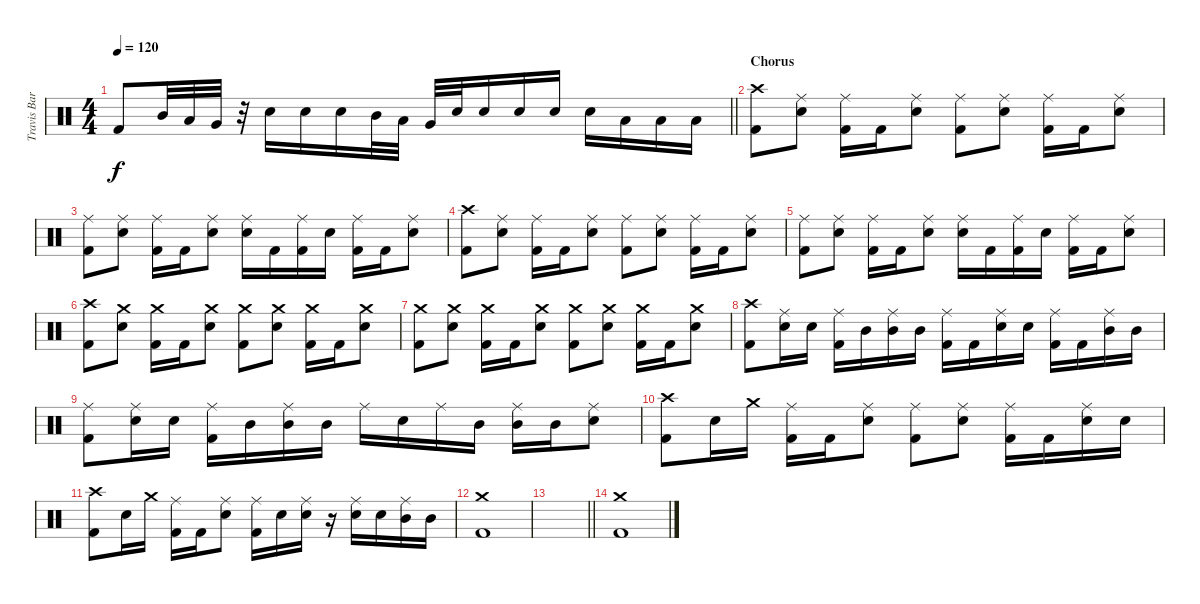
\track ("Travis Barker - Drums" "Travis Bar") {instrument percussion}
\staff {score}
\articulation defaults
\ts (4 4)
\tempo 120
\clef neutral
\barLineRight lightlight
\ks c "Kick (hit) 2".8{dy f} "Mid Tom (hit)".32 "Low Tom (hit)".32 "Very Low Tom (hit)".32
r.32 "Electric Snare (hit)".16 "Electric Snare (hit)".16 "Electric Snare (hit)".16 "Mid Tom (hit)".32 "Low Tom (hit)".32 "Very Low Tom (hit)".32 "Electric Snare (hit)".32 "Electric Snare (hit)".16 "Electric Snare (hit)".16 "Electric Snare (hit)".16 "Electric Snare (hit)".16 "Low Tom (hit)".16 "Low Tom (hit)".16 "Low Tom (hit)".16 |
\section ("" "Chorus")
("Crash high (hit)" "Kick (hit) 2").8 ("Ride (middle)" "Electric Snare (hit)").8 ("Ride (middle)" "Kick (hit) 2").16 "Kick (hit) 2".16 ("Ride (middle)" "Electric Snare (hit)").8 ("Ride (middle)" "Kick (hit) 2").8 ("Ride (middle)" "Electric Snare (hit)").8 ("Ride (middle)" "Kick (hit) 2").16 "Kick (hit) 2".16 ("Ride (middle)" "Electric Snare (hit)").8 |
("Ride (middle)" "Kick (hit) 2").8 ("Ride (middle)" "Electric Snare (hit)").8 ("Ride (middle)" "Kick (hit) 2").16 "Kick (hit) 2".16 ("Ride (middle)" "Electric Snare (hit)").8 ("Ride (middle)" "Electric Snare (hit)").16 "Kick (hit) 2".16 ("Ride (middle)" "Kick (hit) 2").16 "Electric Snare (hit)".16 ("Ride (middle)" "Kick (hit) 2").16 "Kick (hit) 2".16 ("Ride (middle)" "Electric Snare (hit)").8 |
("Crash high (hit)" "Kick (hit) 2").8 ("Ride (middle)" "Electric Snare (hit)").8 ("Ride (middle)" "Kick (hit) 2").16 "Kick (hit) 2".16 ("Ride (middle)" "Electric Snare (hit)").8 ("Ride (middle)" "Kick (hit) 2").8 ("Ride (middle)" "Electric Snare (hit)").8 ("Ride (middle)" "Kick (hit) 2").16 "Kick (hit) 2".16 ("Ride (middle)" "Electric Snare (hit)").8 |
("Ride (middle)" "Kick (hit) 2").8 ("Ride (middle)" "Electric Snare (hit)").8 ("Ride (middle)" "Kick (hit) 2").16 "Kick (hit) 2".16 ("Ride (middle)" "Electric Snare (hit)").8 ("Ride (middle)" "Electric Snare (hit)").16 "Kick (hit) 2".16 ("Ride (middle)" "Kick (hit) 2").16 "Electric Snare (hit)".16 ("Ride (middle)" "Kick (hit) 2").16 "Kick (hit) 2".16 ("Ride (middle)" "Electric Snare (hit)").8 |
("Crash high (hit)" "Kick (hit) 2").8 ("Crash medium (hit)" "Electric Snare (hit)").8 ("Crash medium (hit)" "Kick (hit) 2").16 "Kick (hit) 2".16 ("Crash medium (hit)" "Electric Snare (hit)").8 ("Crash medium (hit)" "Kick (hit) 2").8 ("Crash medium (hit)" "Electric Snare (hit)").8 ("Crash medium (hit)" "Kick (hit) 2").16 "Kick (hit) 2".16 ("Crash medium (hit)" "Electric Snare (hit)").8 |
("Crash medium (hit)" "Kick (hit) 2").8 ("Crash medium (hit)" "Electric Snare (hit)").8 ("Crash medium (hit)" "Kick (hit) 2").16 "Kick (hit) 2".16 ("Crash medium (hit)" "Electric Snare (hit)").8 ("Crash medium (hit)" "Kick (hit) 2").8 ("Crash medium (hit)" "Electric Snare (hit)").8 ("Crash medium (hit)" "Kick (hit) 2").16 "Kick (hit) 2".16 ("Crash medium (hit)" "Electric Snare (hit)").8 |
("Crash high (hit)" "Kick (hit) 2").8 ("Ride (middle)" "Electric Snare (hit)").16 "Electric Snare (hit)".16 ("Ride (middle)" "Kick (hit) 2").16 "Mid Tom (hit)".16 ("Ride (middle)" "Mid Tom (hit)").16 "Mid Tom (hit)".16 ("Ride (middle)" "Kick (hit) 2").16 "Kick (hit) 2".16 ("Ride (middle)" "Electric Snare (hit)").16 "Electric Snare (hit)".16 ("Ride (middle)" "Kick (hit) 2").16 "Kick (hit) 2".16 ("Ride (middle)" "Mid Tom (hit)").16 "Mid Tom (hit)".16 |
("Ride (middle)" "Kick (hit) 2").8 ("Ride (middle)" "Electric Snare (hit)").16 "Electric Snare (hit)".16 ("Ride (middle)" "Kick (hit) 2").16 "Mid Tom (hit)".16 ("Ride (middle)" "Mid Tom (hit)").16 "Mid Tom (hit)".16 "Ride (middle)".16 "Electric Snare (hit)".16 "Ride (middle)".16 "Mid Tom (hit)".16 ("Ride (middle)" "Mid Tom (hit)").16 "Mid Tom (hit)".16 ("Ride (middle)" "Electric Snare (hit)").8 |
("Crash high (hit)" "Kick (hit) 2").8 "Electric Snare (hit)".16 "Crash medium (hit)".16 ("Ride (middle)" "Kick (hit) 2").16 "Kick (hit) 2".16 ("Ride (middle)" "Electric Snare (hit)").8 ("Ride (middle)" "Kick (hit) 2").8 ("Ride (middle)" "Electric Snare (hit)").8 ("Ride (middle)" "Kick (hit) 2").16 "Kick (hit) 2".16 ("Ride (middle)" "Electric Snare (hit)").16 "Electric Snare (hit)".16 |
("Crash high (hit)" "Kick (hit) 2").8 "Electric Snare (hit)".16 "Crash medium (hit)".16 ("Ride (middle)" "Kick (hit) 2").16 "Kick (hit) 2".16 ("Ride (middle)" "Electric Snare (hit)").8 ("Ride (middle)" "Kick (hit) 2").16 "Electric Snare (hit)".16 ("Ride (middle)" "Electric Snare (hit)").16 r.16 ("Ride (middle)" "Electric Snare (hit)").16 "Electric Snare (hit)".16 ("Ride (middle)" "Mid Tom (hit)").16 "Mid Tom (hit)".16 |
("Crash medium (hit)" "Kick (hit) 2").1 |
\barLineRight lightlight
|
("Crash medium (hit)" "Kick (hit) 2").1
